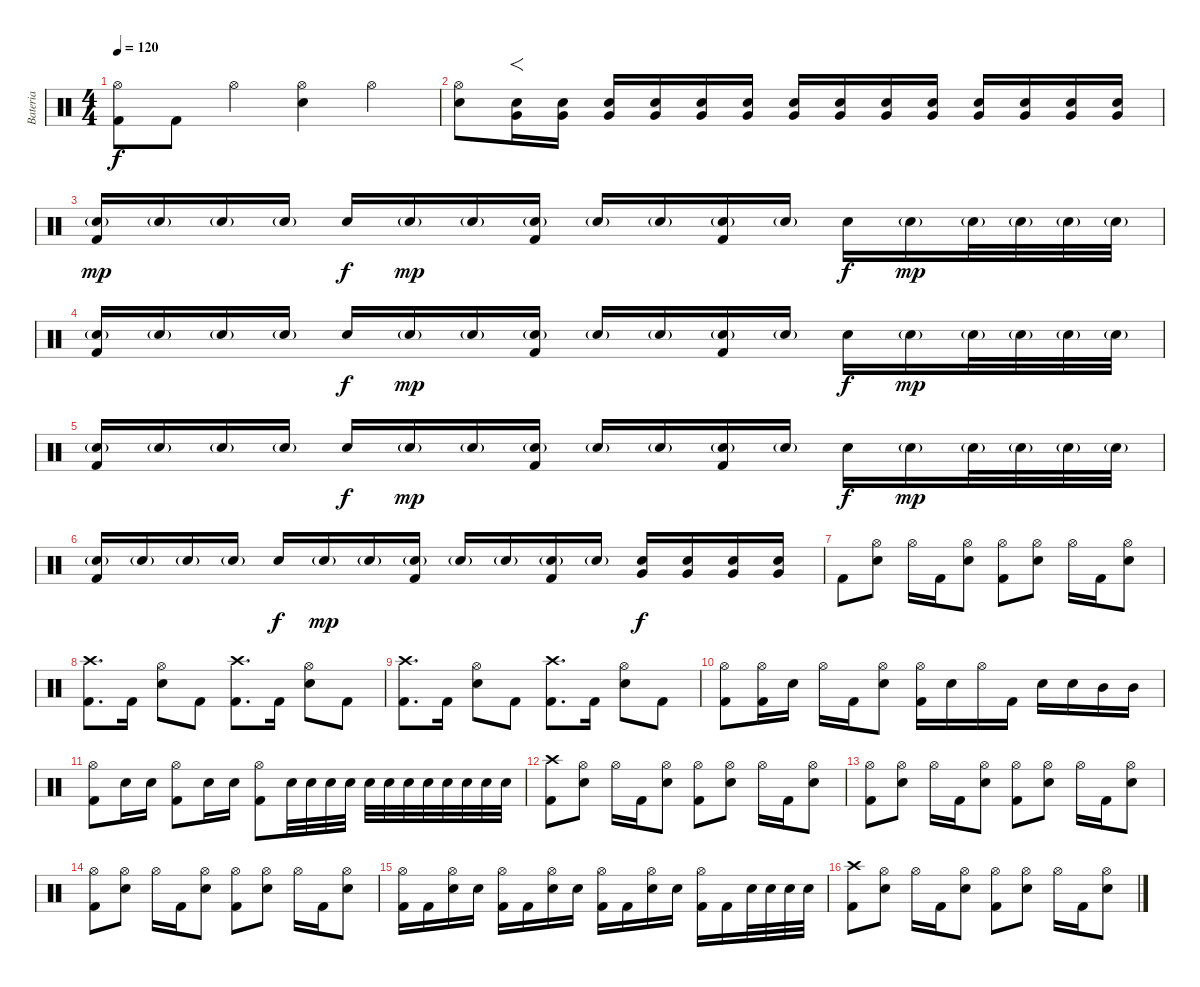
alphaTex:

\track ("Bateria" "Bateria") {instrument percussion}
\staff {score}
\articulation defaults
\ts (4 4)
\tempo 120
\clef neutral
\ks c
("Hi-Hat (open)" "Kick (hit) 2").8{dy f} "Kick (hit) 2".8 "Hi-Hat (open)".4 ("Hi-Hat (open)" "Electric Snare (hit)").4 "Hi-Hat (open)".4 |
("Hi-Hat (open)" "Electric Snare (hit)").8 ("Electric Snare (hit)" "Very Low Tom (hit)").16{f} ("Electric Snare (hit)" "Very Low Tom (hit)").16 ("Electric Snare (hit)" "Very Low Tom (hit)").16 ("Electric Snare (hit)" "Very Low Tom (hit)").16 ("Electric Snare (hit)" "Very Low Tom (hit)").16 ("Electric Snare (hit)" "Very Low Tom (hit)").16 ("Electric Snare (hit)" "Very Low Tom (hit)").16 ("Electric Snare (hit)" "Very Low Tom (hit)").16 ("Electric Snare (hit)" "Very Low Tom (hit)").16 ("Electric Snare (hit)" "Very Low Tom (hit)").16 ("Electric Snare (hit)" "Very Low Tom (hit)").16 ("Electric Snare (hit)" "Very Low Tom (hit)").16 ("Electric Snare (hit)" "Very Low Tom (hit)").16 ("Electric Snare (hit)" "Very Low Tom (hit)").16 |
("Electric Snare (hit)"{g} "Kick (hit) 2").16{dy mp} "Electric Snare (hit)"{g}.16 "Electric Snare (hit)"{g}.16 "Electric Snare (hit)"{g}.16 "Electric Snare (hit)".16{dy f} "Electric Snare (hit)"{g}.16{dy mp} "Electric Snare (hit)"{g}.16 ("Electric Snare (hit)"{g} "Kick (hit) 2").16 "Electric Snare (hit)"{g}.16 "Electric Snare (hit)"{g}.16 ("Electric Snare (hit)"{g} "Kick (hit) 2").16 "Electric Snare (hit)"{g}.16 "Electric Snare (hit)".16{dy f} "Electric Snare (hit)"{g}.16{dy mp} "Electric Snare (hit)"{g}.32 "Electric Snare (hit)"{g}.32 "Electric Snare (hit)"{g}.32 "Electric Snare (hit)"{g}.32 |
("Electric Snare (hit)"{g} "Kick (hit) 2").16 "Electric Snare (hit)"{g}.16 "Electric Snare (hit)"{g}.16 "Electric Snare (hit)"{g}.16 "Electric Snare (hit)".16{dy f} "Electric Snare (hit)"{g}.16{dy mp} "Electric Snare (hit)"{g}.16 ("Electric Snare (hit)"{g} "Kick (hit) 2").16 "Electric Snare (hit)"{g}.16 "Electric Snare (hit)"{g}.16 ("Electric Snare (hit)"{g} "Kick (hit) 2").16 "Electric Snare (hit)"{g}.16 "Electric Snare (hit)".16{dy f} "Electric Snare (hit)"{g}.16{dy mp} "Electric Snare (hit)"{g}.32 "Electric Snare (hit)"{g}.32 "Electric Snare (hit)"{g}.32 "Electric Snare (hit)"{g}.32 |
("Electric Snare (hit)"{g} "Kick (hit) 2").16 "Electric Snare (hit)"{g}.16 "Electric Snare (hit)"{g}.16 "Electric Snare (hit)"{g}.16 "Electric Snare (hit)".16{dy f} "Electric Snare (hit)"{g}.16{dy mp} "Electric Snare (hit)"{g}.16 ("Electric Snare (hit)"{g} "Kick (hit) 2").16 "Electric Snare (hit)"{g}.16 "Electric Snare (hit)"{g}.16 ("Electric Snare (hit)"{g} "Kick (hit) 2").16 "Electric Snare (hit)"{g}.16 "Electric Snare (hit)".16{dy f} "Electric Snare (hit)"{g}.16{dy mp} "Electric Snare (hit)"{g}.32 "Electric Snare (hit)"{g}.32 "Electric Snare (hit)"{g}.32 "Electric Snare (hit)"{g}.32 |
("Electric Snare (hit)"{g} "Kick (hit) 2").16 "Electric Snare (hit)"{g}.16 "Electric Snare (hit)"{g}.16 "Electric Snare (hit)"{g}.16 "Electric Snare (hit)".16{dy f} "Electric Snare (hit)"{g}.16{dy mp} "Electric Snare (hit)"{g}.16 ("Electric Snare (hit)"{g} "Kick (hit) 2").16 "Electric Snare (hit)"{g}.16 "Electric Snare (hit)"{g}.16 ("Electric Snare (hit)"{g} "Kick (hit) 2").16 "Electric Snare (hit)"{g}.16 ("Electric Snare (hit)" "Very Low Tom (hit)").16{dy f} ("Electric Snare (hit)" "Very Low Tom (hit)").16 ("Electric Snare (hit)" "Very Low Tom (hit)").16 ("Electric Snare (hit)" "Very Low Tom (hit)").16 |
"Kick (hit) 2".8 ("Hi-Hat (open)" "Electric Snare (hit)").8 "Hi-Hat (open)".16 "Kick (hit) 2".16 ("Hi-Hat (open)" "Electric Snare (hit)").8 ("Hi-Hat (open)" "Kick (hit) 2").8 ("Hi-Hat (open)" "Electric Snare (hit)").8 "Hi-Hat (open)".16 "Kick (hit) 2".16 ("Hi-Hat (open)" "Electric Snare (hit)").8 |
("Crash high (hit)" "Kick (hit) 2").8{d} "Kick (hit) 2".16 ("Hi-Hat (open)" "Electric Snare (hit)").8 "Kick (hit) 2".8 ("Crash high (hit)" "Kick (hit) 2").8{d} "Kick (hit) 2".16 ("Hi-Hat (open)" "Electric Snare (hit)").8 "Kick (hit) 2".8 |
("Crash high (hit)" "Kick (hit) 2").8{d} "Kick (hit) 2".16 ("Hi-Hat (open)" "Electric Snare (hit)").8 "Kick (hit) 2".8 ("Crash high (hit)" "Kick (hit) 2").8{d} "Kick (hit) 2".16 ("Hi-Hat (open)" "Electric Snare (hit)").8 "Kick (hit) 2".8 |
("Hi-Hat (open)" "Kick (hit) 2").8 ("Hi-Hat (open)" "Kick (hit) 2").16 "Electric Snare (hit)".16 "Hi-Hat (open)".16 "Kick (hit) 2".16 ("Hi-Hat (open)" "Electric Snare (hit)").8 ("Hi-Hat (open)" "Kick (hit) 2").16 "Electric Snare (hit)".16 "Hi-Hat (open)".16 "Kick (hit) 2".16 "Electric Snare (hit)".16 "Electric Snare (hit)".16 "Mid Tom (hit)".16 "Mid Tom (hit)".16 |
("Hi-Hat (open)" "Kick (hit) 2").8 "Electric Snare (hit)".16 "Electric Snare (hit)".16 ("Hi-Hat (open)" "Kick (hit) 2").8 "Electric Snare (hit)".16 "Electric Snare (hit)".16 ("Hi-Hat (open)" "Kick (hit) 2").8 "Electric Snare (hit)".32 "Electric Snare (hit)".32 "Electric Snare (hit)".32 "Electric Snare (hit)".32 "Electric Snare (hit)".32 "Electric Snare (hit)".32 "Electric Snare (hit)".32 "Electric Snare (hit)".32 "Electric Snare (hit)".32 "Electric Snare (hit)".32 "Electric Snare (hit)".32 "Electric Snare (hit)".32 |
("Crash high (hit)" "Kick (hit) 2").8 ("Hi-Hat (open)" "Electric Snare (hit)").8 "Hi-Hat (open)".16 "Kick (hit) 2".16 ("Hi-Hat (open)" "Electric Snare (hit)").8 ("Hi-Hat (open)" "Kick (hit) 2").8 ("Hi-Hat (open)" "Electric Snare (hit)").8 "Hi-Hat (open)".16 "Kick (hit) 2".16 ("Hi-Hat (open)" "Electric Snare (hit)").8 |
("Hi-Hat (open)" "Kick (hit) 2").8 ("Hi-Hat (open)" "Electric Snare (hit)").8 "Hi-Hat (open)".16 "Kick (hit) 2".16 ("Hi-Hat (open)" "Electric Snare (hit)").8 ("Hi-Hat (open)" "Kick (hit) 2").8 ("Hi-Hat (open)" "Electric Snare (hit)").8 "Hi-Hat (open)".16 "Kick (hit) 2".16 ("Hi-Hat (open)" "Electric Snare (hit)").8 |
("Hi-Hat (open)" "Kick (hit) 2").8 ("Hi-Hat (open)" "Electric Snare (hit)").8 "Hi-Hat (open)".16 "Kick (hit) 2".16 ("Hi-Hat (open)" "Electric Snare (hit)").8 ("Hi-Hat (open)" "Kick (hit) 2").8 ("Hi-Hat (open)" "Electric Snare (hit)").8 "Hi-Hat (open)".16 "Kick (hit) 2".16 ("Hi-Hat (open)" "Electric Snare (hit)").8 |
("Hi-Hat (open)" "Kick (hit) 2").16 "Kick (hit) 2".16 ("Hi-Hat (open)" "Electric Snare (hit)").16 "Electric Snare (hit)".16 ("Hi-Hat (open)" "Kick (hit) 2").16 "Kick (hit) 2".16 ("Hi-Hat (open)" "Electric Snare (hit)").16 "Electric Snare (hit)".16 ("Hi-Hat (open)" "Kick (hit) 2").16 "Kick (hit) 2".16 ("Hi-Hat (open)" "Electric Snare (hit)").16 "Electric Snare (hit)".16 ("Hi-Hat (open)" "Kick (hit) 2").16 "Kick (hit) 2".16 "Electric Snare (hit)".32 "Electric Snare (hit)".32 "Electric Snare (hit)".32 "Electric Snare (hit)".32 |
("Crash high (hit)" "Kick (hit) 2").8 ("Hi-Hat (open)" "Electric Snare (hit)").8 "Hi-Hat (open)".16 "Kick (hit) 2".16 ("Hi-Hat (open)" "Electric Snare (hit)").8 ("Hi-Hat (open)" "Kick (hit) 2").8 ("Hi-Hat (open)" "Electric Snare (hit)").8 "Hi-Hat (open)".16 "Kick (hit) 2".16 ("Hi-Hat (open)" "Electric Snare (hit)").8
